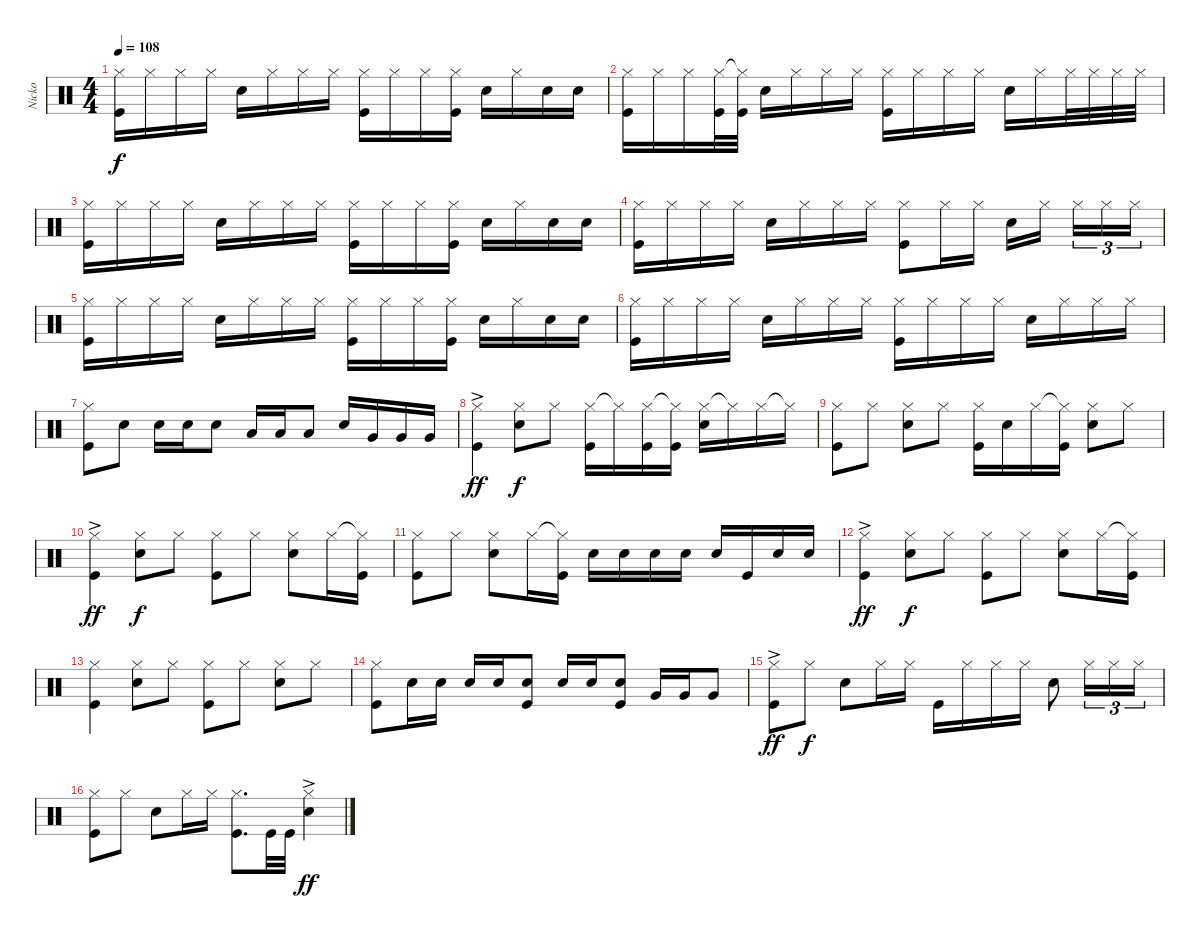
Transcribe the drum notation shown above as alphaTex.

\track ("Nicko" "Nicko") {instrument percussion}
\staff {score}
\articulation defaults
\ts (4 4)
\tempo 108
\clef neutral
\ks c
("Hi-Hat (closed)" "Kick (hit)").16{dy f} "Hi-Hat (closed)".16 "Hi-Hat (closed)".16 "Hi-Hat (closed)".16 "Snare (hit) 2".16 "Hi-Hat (closed)".16 "Hi-Hat (closed)".16 "Hi-Hat (closed)".16 ("Hi-Hat (closed)" "Kick (hit)").16 "Hi-Hat (closed)".16 "Hi-Hat (closed)".16 ("Hi-Hat (closed)" "Kick (hit)").16 "Snare (hit) 2".16 "Hi-Hat (closed)".16 "Snare (hit) 2".16 "Snare (hit) 2".16 |
("Hi-Hat (closed)" "Kick (hit)").16 "Hi-Hat (closed)".16 "Hi-Hat (closed)".16 ("Hi-Hat (closed)" "Kick (hit)").32 ("Hi-Hat (closed)"{t} "Kick (hit)").32 "Snare (hit) 2".16 "Hi-Hat (closed)".16 "Hi-Hat (closed)".16 "Hi-Hat (closed)".16 ("Hi-Hat (closed)" "Kick (hit)").16 "Hi-Hat (closed)".16 "Hi-Hat (closed)".16 "Hi-Hat (closed)".16 "Snare (hit) 2".16 "Hi-Hat (closed)".16 "Hi-Hat (closed)".32 "Hi-Hat (closed)".32 "Hi-Hat (closed)".32 "Hi-Hat (closed)".32 |
("Hi-Hat (closed)" "Kick (hit)").16 "Hi-Hat (closed)".16 "Hi-Hat (closed)".16 "Hi-Hat (closed)".16 "Snare (hit) 2".16 "Hi-Hat (closed)".16 "Hi-Hat (closed)".16 "Hi-Hat (closed)".16 ("Hi-Hat (closed)" "Kick (hit)").16 "Hi-Hat (closed)".16 "Hi-Hat (closed)".16 ("Hi-Hat (closed)" "Kick (hit)").16 "Snare (hit) 2".16 "Hi-Hat (closed)".16 "Snare (hit) 2".16 "Snare (hit) 2".16 |
("Hi-Hat (closed)" "Kick (hit)").16 "Hi-Hat (closed)".16 "Hi-Hat (closed)".16 "Hi-Hat (closed)".16 "Snare (hit) 2".16 "Hi-Hat (closed)".16 "Hi-Hat (closed)".16 "Hi-Hat (closed)".16 ("Hi-Hat (closed)" "Kick (hit)").8 "Hi-Hat (closed)".16 "Hi-Hat (closed)".16 "Snare (hit) 2".16 "Hi-Hat (closed)".16{beam splitsecondary} "Hi-Hat (closed)".16{tu (3 2)} "Hi-Hat (closed)".16{tu (3 2)} "Hi-Hat (closed)".16{tu (3 2)} |
("Hi-Hat (closed)" "Kick (hit)").16 "Hi-Hat (closed)".16 "Hi-Hat (closed)".16 "Hi-Hat (closed)".16 "Snare (hit) 2".16 "Hi-Hat (closed)".16 "Hi-Hat (closed)".16 "Hi-Hat (closed)".16 ("Hi-Hat (closed)" "Kick (hit)").16 "Hi-Hat (closed)".16 "Hi-Hat (closed)".16 ("Hi-Hat (closed)" "Kick (hit)").16 "Snare (hit) 2".16 "Hi-Hat (closed)".16 "Snare (hit) 2".16 "Snare (hit) 2".16 |
("Hi-Hat (closed)" "Kick (hit)").16 "Hi-Hat (closed)".16 "Hi-Hat (closed)".16 "Hi-Hat (closed)".16 "Snare (hit) 2".16 "Hi-Hat (closed)".16 "Hi-Hat (closed)".16 "Hi-Hat (closed)".16 ("Hi-Hat (closed)" "Kick (hit)").16 "Hi-Hat (closed)".16 "Hi-Hat (closed)".16 "Hi-Hat (closed)".16 "Snare (hit) 2".16 "Hi-Hat (closed)".16 "Hi-Hat (closed)".16 "Hi-Hat (closed)".16 |
("Hi-Hat (closed)" "Kick (hit)").8 "Snare (hit) 2".8 "Snare (hit) 2".16 "Snare (hit) 2".16 "Snare (hit) 2".8 "Low Tom (hit)".16 "Low Tom (hit)".16 "Low Tom (hit)".8 "Snare (hit) 2".16 "Very Low Tom (hit)".16 "Very Low Tom (hit)".16 "Very Low Tom (hit)".16 |
("Hi-Hat (closed)" "Kick (hit)"{ac}).4{dy ff} ("Hi-Hat (closed)" "Snare (hit) 2").8{dy f} "Hi-Hat (closed)".8 ("Hi-Hat (closed)" "Kick (hit)").16 "Hi-Hat (closed)"{t}.16 ("Hi-Hat (closed)" "Kick (hit)").16 ("Hi-Hat (closed)"{t} "Kick (hit)").16 ("Hi-Hat (closed)" "Snare (hit) 2").16 "Hi-Hat (closed)"{t}.16 "Hi-Hat (closed)".16 "Hi-Hat (closed)"{t}.16 |
("Hi-Hat (closed)" "Kick (hit)").8 "Hi-Hat (closed)".8 ("Hi-Hat (closed)" "Snare (hit) 2").8 "Hi-Hat (closed)".8 ("Hi-Hat (closed)" "Kick (hit)").16 "Snare (hit) 2".16 "Hi-Hat (closed)".16 ("Hi-Hat (closed)"{t} "Kick (hit)").16 ("Hi-Hat (closed)" "Snare (hit) 2").8 "Hi-Hat (closed)".8 |
("Hi-Hat (closed)" "Kick (hit)"{ac}).4{dy ff} ("Hi-Hat (closed)" "Snare (hit) 2").8{dy f} "Hi-Hat (closed)".8 ("Hi-Hat (closed)" "Kick (hit)").8 "Hi-Hat (closed)".8 ("Hi-Hat (closed)" "Snare (hit) 2").8 "Hi-Hat (closed)".16 ("Hi-Hat (closed)"{t} "Kick (hit)").16 |
("Hi-Hat (closed)" "Kick (hit)").8 "Hi-Hat (closed)".8 ("Hi-Hat (closed)" "Snare (hit) 2").8 "Hi-Hat (closed)".16 ("Hi-Hat (closed)"{t} "Kick (hit)").16 "Snare (hit) 2".16 "Snare (hit) 2".16 "Snare (hit) 2".16 "Snare (hit) 2".16 "Snare (hit) 2".16 "Kick (hit)".16 "Snare (hit) 2".16 "Snare (hit) 2".16 |
("Hi-Hat (closed)" "Kick (hit)"{ac}).4{dy ff} ("Hi-Hat (closed)" "Snare (hit) 2").8{dy f} "Hi-Hat (closed)".8 ("Hi-Hat (closed)" "Kick (hit)").8 "Hi-Hat (closed)".8 ("Hi-Hat (closed)" "Snare (hit) 2").8 "Hi-Hat (closed)".16 ("Hi-Hat (closed)"{t} "Kick (hit)").16 |
("Hi-Hat (closed)" "Kick (hit)").4 ("Hi-Hat (closed)" "Snare (hit) 2").8 "Hi-Hat (closed)".8 ("Hi-Hat (closed)" "Kick (hit)").8 "Hi-Hat (closed)".8 ("Hi-Hat (closed)" "Snare (hit) 2").8 "Hi-Hat (closed)".8 |
("Hi-Hat (closed)" "Kick (hit)").8 "Snare (hit) 2".16 "Snare (hit) 2".16 "Snare (hit) 2".16 "Snare (hit) 2".16 ("Snare (hit) 2" "Kick (hit)").8 "Snare (hit) 2".16 "Snare (hit) 2".16 ("Snare (hit) 2" "Kick (hit)").8 "Very Low Tom (hit)".16 "Very Low Tom (hit)".16 "Very Low Tom (hit)".8 |
("Hi-Hat (closed)"{ac} "Kick (hit)").8{dy ff} "Hi-Hat (closed)".8{dy f} "Snare (hit) 2".8 "Hi-Hat (closed)".16 "Hi-Hat (closed)".16 "Kick (hit)".16 "Hi-Hat (closed)".16 "Hi-Hat (closed)".16 "Hi-Hat (closed)".16 "Snare (hit) 2".8 "Hi-Hat (closed)".16{tu (3 2)} "Hi-Hat (closed)".16{tu (3 2)} "Hi-Hat (closed)".16{tu (3 2)} |
("Hi-Hat (closed)" "Kick (hit)").8 "Hi-Hat (closed)".8 "Snare (hit) 2".8 "Hi-Hat (closed)".16 "Hi-Hat (closed)".16 ("Hi-Hat (closed)" "Kick (hit)").8{d} "Kick (hit)".32 "Kick (hit)".32 ("Hi-Hat (closed)"{ac} "Snare (hit) 2"{ac}).4{dy ff}
